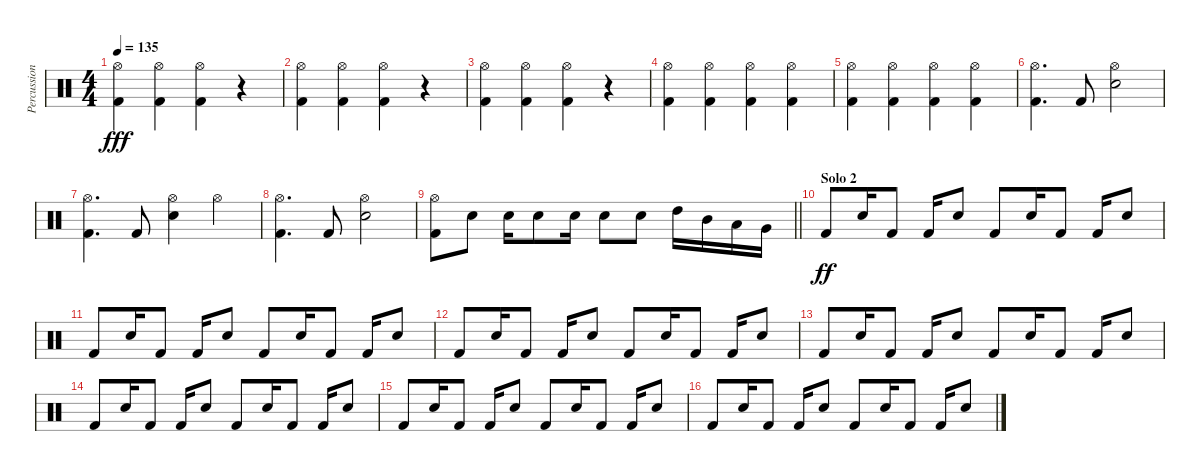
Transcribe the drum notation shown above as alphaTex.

\track ("Percussion" "Percussion") {instrument percussion}
\staff {score}
\articulation defaults
\ts (4 4)
\tempo 135
\clef neutral
\ks c
("Hi-Hat (open)" "Kick (hit) 2").4{dy fff} ("Hi-Hat (open)" "Kick (hit) 2").4 ("Hi-Hat (open)" "Kick (hit) 2").4 r.4 |
("Hi-Hat (open)" "Kick (hit) 2").4 ("Hi-Hat (open)" "Kick (hit) 2").4 ("Hi-Hat (open)" "Kick (hit) 2").4 r.4 |
("Hi-Hat (open)" "Kick (hit) 2").4 ("Hi-Hat (open)" "Kick (hit) 2").4 ("Hi-Hat (open)" "Kick (hit) 2").4 r.4 |
("Hi-Hat (open)" "Kick (hit) 2").4 ("Hi-Hat (open)" "Kick (hit) 2").4 ("Hi-Hat (open)" "Kick (hit) 2").4 ("Hi-Hat (open)" "Kick (hit) 2").4 |
("Hi-Hat (open)" "Kick (hit) 2").4 ("Hi-Hat (open)" "Kick (hit) 2").4 ("Hi-Hat (open)" "Kick (hit) 2").4 ("Hi-Hat (open)" "Kick (hit) 2").4 |
("Hi-Hat (open)" "Kick (hit) 2").4{d} "Kick (hit) 2".8 ("Hi-Hat (open)" "Electric Snare (hit)").2 |
("Hi-Hat (open)" "Kick (hit) 2").4{d} "Kick (hit) 2".8 ("Hi-Hat (open)" "Electric Snare (hit)").4 "Hi-Hat (open)".4 |
("Hi-Hat (open)" "Kick (hit) 2").4{d} "Kick (hit) 2".8 ("Hi-Hat (open)" "Electric Snare (hit)").2 |
\barLineRight lightlight
("Hi-Hat (open)" "Kick (hit) 2").8 "Electric Snare (hit)".8 "Electric Snare (hit)".16 "Electric Snare (hit)".8 "Electric Snare (hit)".16 "Electric Snare (hit)".8 "Electric Snare (hit)".8 "High Tom (hit)".16 "Mid Tom (hit)".16 "Low Tom (hit)".16 "Very Low Tom (hit)".16 |
\section ("" "Solo 2")
"Kick (hit) 2".8{dy ff} "Electric Snare (hit)".16 "Kick (hit) 2".8 "Kick (hit) 2".16 "Electric Snare (hit)".8 "Kick (hit) 2".8 "Electric Snare (hit)".16 "Kick (hit) 2".8 "Kick (hit) 2".16 "Electric Snare (hit)".8 |
"Kick (hit) 2".8 "Electric Snare (hit)".16 "Kick (hit) 2".8 "Kick (hit) 2".16 "Electric Snare (hit)".8 "Kick (hit) 2".8 "Electric Snare (hit)".16 "Kick (hit) 2".8 "Kick (hit) 2".16 "Electric Snare (hit)".8 |
"Kick (hit) 2".8 "Electric Snare (hit)".16 "Kick (hit) 2".8 "Kick (hit) 2".16 "Electric Snare (hit)".8 "Kick (hit) 2".8 "Electric Snare (hit)".16 "Kick (hit) 2".8 "Kick (hit) 2".16 "Electric Snare (hit)".8 |
"Kick (hit) 2".8 "Electric Snare (hit)".16 "Kick (hit) 2".8 "Kick (hit) 2".16 "Electric Snare (hit)".8 "Kick (hit) 2".8 "Electric Snare (hit)".16 "Kick (hit) 2".8 "Kick (hit) 2".16 "Electric Snare (hit)".8 |
"Kick (hit) 2".8 "Electric Snare (hit)".16 "Kick (hit) 2".8 "Kick (hit) 2".16 "Electric Snare (hit)".8 "Kick (hit) 2".8 "Electric Snare (hit)".16 "Kick (hit) 2".8 "Kick (hit) 2".16 "Electric Snare (hit)".8 |
"Kick (hit) 2".8 "Electric Snare (hit)".16 "Kick (hit) 2".8 "Kick (hit) 2".16 "Electric Snare (hit)".8 "Kick (hit) 2".8 "Electric Snare (hit)".16 "Kick (hit) 2".8 "Kick (hit) 2".16 "Electric Snare (hit)".8 |
"Kick (hit) 2".8 "Electric Snare (hit)".16 "Kick (hit) 2".8 "Kick (hit) 2".16 "Electric Snare (hit)".8 "Kick (hit) 2".8 "Electric Snare (hit)".16 "Kick (hit) 2".8 "Kick (hit) 2".16 "Electric Snare (hit)".8
